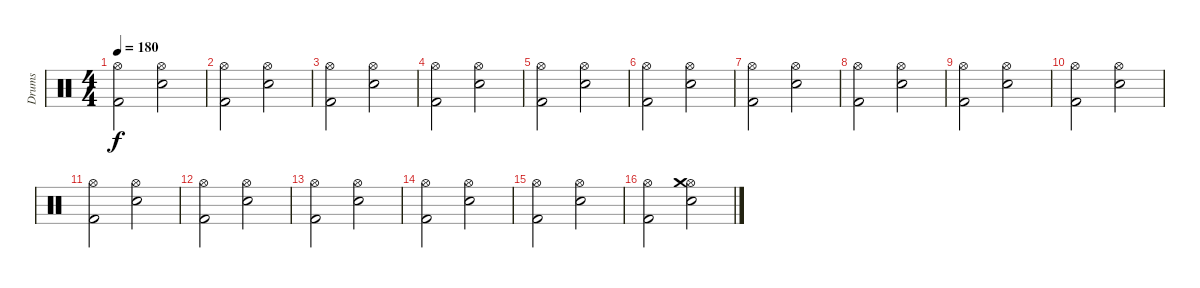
\track ("Drums" "Drums") {instrument percussion}
\staff {score}
\articulation defaults
\ts (4 4)
\tempo 180
\clef neutral
\ks c
("Hi-Hat (open)" "Kick (hit) 2").2{dy f} ("Hi-Hat (open)" "Electric Snare (hit)").2 |
("Hi-Hat (open)" "Kick (hit) 2").2 ("Hi-Hat (open)" "Electric Snare (hit)").2 |
("Hi-Hat (open)" "Kick (hit) 2").2 ("Hi-Hat (open)" "Electric Snare (hit)").2 |
("Hi-Hat (open)" "Kick (hit) 2").2 ("Hi-Hat (open)" "Electric Snare (hit)").2 |
("Hi-Hat (open)" "Kick (hit) 2").2 ("Hi-Hat (open)" "Electric Snare (hit)").2 |
("Hi-Hat (open)" "Kick (hit) 2").2 ("Hi-Hat (open)" "Electric Snare (hit)").2 |
("Hi-Hat (open)" "Kick (hit) 2").2 ("Hi-Hat (open)" "Electric Snare (hit)").2 |
("Hi-Hat (open)" "Kick (hit) 2").2 ("Hi-Hat (open)" "Electric Snare (hit)").2 |
("Hi-Hat (open)" "Kick (hit) 2").2 ("Hi-Hat (open)" "Electric Snare (hit)").2 |
("Hi-Hat (open)" "Kick (hit) 2").2 ("Hi-Hat (open)" "Electric Snare (hit)").2 |
("Hi-Hat (open)" "Kick (hit) 2").2 ("Hi-Hat (open)" "Electric Snare (hit)").2 |
("Hi-Hat (open)" "Kick (hit) 2").2 ("Hi-Hat (open)" "Electric Snare (hit)").2 |
("Hi-Hat (open)" "Kick (hit) 2").2 ("Hi-Hat (open)" "Electric Snare (hit)").2 |
("Hi-Hat (open)" "Kick (hit) 2").2 ("Hi-Hat (open)" "Electric Snare (hit)").2 |
("Hi-Hat (open)" "Kick (hit) 2").2 ("Hi-Hat (open)" "Electric Snare (hit)").2 |
("Hi-Hat (open)" "Kick (hit) 2").2 ("Hi-Hat (open)" "Crash medium (hit)" "Electric Snare (hit)").2
